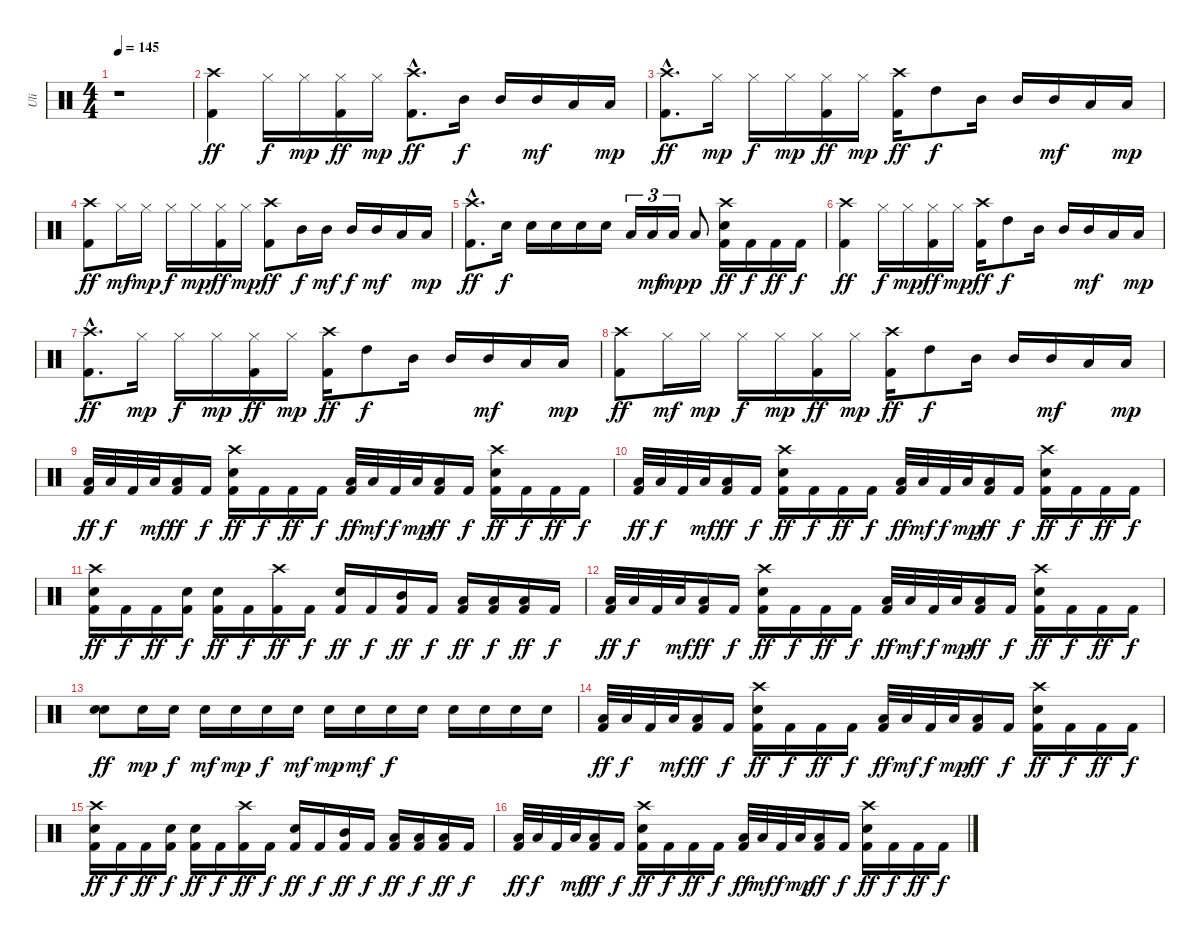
\track ("Uli" "Uli") {instrument percussion}
\staff {score}
\articulation defaults
\ts (4 4)
\tempo 145
\clef neutral
\ks c
r.1{dy ff} |
("Crash high (hit)" "Kick (hit) 2").4 "Hi-Hat (closed)".16{dy f} "Hi-Hat (closed)".16{dy mp} ("Hi-Hat (closed)" "Kick (hit) 2").16{dy ff} "Hi-Hat (closed)".16{dy mp} ("Crash high (hit)"{hac} "Kick (hit) 2"{hac}).8{d dy ff} "Mid Tom (hit)".16{dy f} "Mid Tom (hit)".16 "Mid Tom (hit)".16{dy mf} "Low Tom (hit)".16 "Low Tom (hit)".16{dy mp} |
("Crash high (hit)"{hac} "Kick (hit) 2"{hac}).8{d dy ff} "Hi-Hat (closed)".16{dy mp} "Hi-Hat (closed)".16{dy f} "Hi-Hat (closed)".16{dy mp} ("Hi-Hat (closed)" "Kick (hit) 2").16{dy ff} "Hi-Hat (closed)".16{dy mp} ("Crash high (hit)" "Kick (hit) 2").16{dy ff} "High Tom (hit)".8{dy f} "Mid Tom (hit)".16 "Mid Tom (hit)".16 "Mid Tom (hit)".16{dy mf} "Low Tom (hit)".16 "Low Tom (hit)".16{dy mp} |
("Crash high (hit)" "Kick (hit) 2").8{dy ff} "Hi-Hat (closed)".16{dy mf} "Hi-Hat (closed)".16{dy mp} "Hi-Hat (closed)".16{dy f} "Hi-Hat (closed)".16{dy mp} ("Hi-Hat (closed)" "Kick (hit) 2").16{dy ff} "Hi-Hat (closed)".16{dy mp} ("Crash high (hit)" "Kick (hit) 2").8{dy ff} "Mid Tom (hit)".16{dy f} "Mid Tom (hit)".16{dy mf} "Mid Tom (hit)".16{dy f} "Mid Tom (hit)".16{dy mf} "Low Tom (hit)".16 "Low Tom (hit)".16{dy mp} |
("Crash high (hit)"{hac} "Kick (hit) 2"{hac}).8{d dy ff} "Electric Snare (hit)".16{dy f} "Electric Snare (hit)".16 "Electric Snare (hit)".16 "Electric Snare (hit)".16 "Electric Snare (hit)".16 "Low Tom (hit)".16{tu (3 2)} "Low Tom (hit)".16{tu (3 2) dy mf} "Low Tom (hit)".16{tu (3 2) dy mp} "Low Tom (hit)".8{dy p} ("Crash high (hit)" "Electric Snare (hit)" "Kick (hit) 2").16{dy ff} "Kick (hit) 2".16{dy f} "Kick (hit) 2".16{dy ff} "Kick (hit) 2".16{dy f} |
("Crash high (hit)" "Kick (hit) 2").4{dy ff} "Hi-Hat (closed)".16{dy f} "Hi-Hat (closed)".16{dy mp} ("Hi-Hat (closed)" "Kick (hit) 2").16{dy ff} "Hi-Hat (closed)".16{dy mp} ("Crash high (hit)" "Kick (hit) 2").16{dy ff} "High Tom (hit)".8{dy f} "Mid Tom (hit)".16 "Mid Tom (hit)".16 "Mid Tom (hit)".16{dy mf} "Low Tom (hit)".16 "Low Tom (hit)".16{dy mp} |
("Crash high (hit)"{hac} "Kick (hit) 2"{hac}).8{d dy ff} "Hi-Hat (closed)".16{dy mp} "Hi-Hat (closed)".16{dy f} "Hi-Hat (closed)".16{dy mp} ("Hi-Hat (closed)" "Kick (hit) 2").16{dy ff} "Hi-Hat (closed)".16{dy mp} ("Crash high (hit)" "Kick (hit) 2").16{dy ff} "High Tom (hit)".8{dy f} "Mid Tom (hit)".16 "Mid Tom (hit)".16 "Mid Tom (hit)".16{dy mf} "Low Tom (hit)".16 "Low Tom (hit)".16{dy mp} |
("Crash high (hit)" "Kick (hit) 2").8{dy ff} "Hi-Hat (closed)".16{dy mf} "Hi-Hat (closed)".16{dy mp} "Hi-Hat (closed)".16{dy f} "Hi-Hat (closed)".16{dy mp} ("Hi-Hat (closed)" "Kick (hit) 2").16{dy ff} "Hi-Hat (closed)".16{dy mp} ("Crash high (hit)" "Kick (hit) 2").16{dy ff} "High Tom (hit)".8{dy f} "Mid Tom (hit)".16 "Mid Tom (hit)".16 "Mid Tom (hit)".16{dy mf} "Low Tom (hit)".16 "Low Tom (hit)".16{dy mp} |
("Low Tom (hit)" "Kick (hit) 2").32{dy ff} "Low Tom (hit)".32{dy f} "Kick (hit) 2".32 "Low Tom (hit)".32{dy mf} ("Low Tom (hit)" "Kick (hit) 2").16{dy ff} "Kick (hit) 2".16{dy f} ("Crash high (hit)" "Electric Snare (hit)" "Kick (hit) 2").16{dy ff} "Kick (hit) 2".16{dy f} "Kick (hit) 2".16{dy ff} "Kick (hit) 2".16{dy f} ("Low Tom (hit)" "Kick (hit) 2").32{dy ff} "Low Tom (hit)".32{dy mf} "Kick (hit) 2".32{dy f} "Low Tom (hit)".32{dy mp} ("Low Tom (hit)" "Kick (hit) 2").16{dy ff} "Kick (hit) 2".16{dy f} ("Crash high (hit)" "Electric Snare (hit)" "Kick (hit) 2").16{dy ff} "Kick (hit) 2".16{dy f} "Kick (hit) 2".16{dy ff} "Kick (hit) 2".16{dy f} |
("Low Tom (hit)" "Kick (hit) 2").32{dy ff} "Low Tom (hit)".32{dy f} "Kick (hit) 2".32 "Low Tom (hit)".32{dy mf} ("Low Tom (hit)" "Kick (hit) 2").16{dy ff} "Kick (hit) 2".16{dy f} ("Crash high (hit)" "Electric Snare (hit)" "Kick (hit) 2").16{dy ff} "Kick (hit) 2".16{dy f} "Kick (hit) 2".16{dy ff} "Kick (hit) 2".16{dy f} ("Low Tom (hit)" "Kick (hit) 2").32{dy ff} "Low Tom (hit)".32{dy mf} "Kick (hit) 2".32{dy f} "Low Tom (hit)".32{dy mp} ("Low Tom (hit)" "Kick (hit) 2").16{dy ff} "Kick (hit) 2".16{dy f} ("Crash high (hit)" "Electric Snare (hit)" "Kick (hit) 2").16{dy ff} "Kick (hit) 2".16{dy f} "Kick (hit) 2".16{dy ff} "Kick (hit) 2".16{dy f} |
("Crash high (hit)" "Electric Snare (hit)" "Kick (hit) 2").16{dy ff} "Kick (hit) 2".16{dy f} "Kick (hit) 2".16{dy ff} ("Electric Snare (hit)" "Kick (hit) 2").16{dy f} ("Electric Snare (hit)" "Kick (hit) 2").16{dy ff} "Kick (hit) 2".16{dy f} ("Crash high (hit)" "Kick (hit) 2").16{dy ff} "Kick (hit) 2".16{dy f} ("Electric Snare (hit)" "Kick (hit) 2").16{dy ff} "Kick (hit) 2".16{dy f} ("Mid Tom (hit)" "Kick (hit) 2").16{dy ff} "Kick (hit) 2".16{dy f} ("Low Tom (hit)" "Kick (hit) 2").16{dy ff} ("Low Tom (hit)" "Kick (hit) 2").16{dy f} ("Low Tom (hit)" "Kick (hit) 2").16{dy ff} "Kick (hit) 2".16{dy f} |
("Low Tom (hit)" "Kick (hit) 2").32{dy ff} "Low Tom (hit)".32{dy f} "Kick (hit) 2".32 "Low Tom (hit)".32{dy mf} ("Low Tom (hit)" "Kick (hit) 2").16{dy ff} "Kick (hit) 2".16{dy f} ("Crash high (hit)" "Electric Snare (hit)" "Kick (hit) 2").16{dy ff} "Kick (hit) 2".16{dy f} "Kick (hit) 2".16{dy ff} "Kick (hit) 2".16{dy f} ("Low Tom (hit)" "Kick (hit) 2").32{dy ff} "Low Tom (hit)".32{dy mf} "Kick (hit) 2".32{dy f} "Low Tom (hit)".32{dy mp} ("Low Tom (hit)" "Kick (hit) 2").16{dy ff} "Kick (hit) 2".16{dy f} ("Crash high (hit)" "Electric Snare (hit)" "Kick (hit) 2").16{dy ff} "Kick (hit) 2".16{dy f} "Kick (hit) 2".16{dy ff} "Kick (hit) 2".16{dy f} |
("Electric Snare (hit)" "Electric Snare (hit)").8{dy ff} "Electric Snare (hit)".16{dy mp} "Electric Snare (hit)".16{dy f} "Electric Snare (hit)".16{dy mf} "Electric Snare (hit)".16{dy mp} "Electric Snare (hit)".16{dy f} "Electric Snare (hit)".16{dy mf} "Electric Snare (hit)".16{dy mp} "Electric Snare (hit)".16{dy mf} "Electric Snare (hit)".16{dy f} "Electric Snare (hit)".16 "Electric Snare (hit)".16 "Electric Snare (hit)".16 "Electric Snare (hit)".16 "Electric Snare (hit)".16 |
("Low Tom (hit)" "Kick (hit) 2").32{dy ff} "Low Tom (hit)".32{dy f} "Kick (hit) 2".32 "Low Tom (hit)".32{dy mf} ("Low Tom (hit)" "Kick (hit) 2").16{dy ff} "Kick (hit) 2".16{dy f} ("Crash high (hit)" "Electric Snare (hit)" "Kick (hit) 2").16{dy ff} "Kick (hit) 2".16{dy f} "Kick (hit) 2".16{dy ff} "Kick (hit) 2".16{dy f} ("Low Tom (hit)" "Kick (hit) 2").32{dy ff} "Low Tom (hit)".32{dy mf} "Kick (hit) 2".32{dy f} "Low Tom (hit)".32{dy mp} ("Low Tom (hit)" "Kick (hit) 2").16{dy ff} "Kick (hit) 2".16{dy f} ("Crash high (hit)" "Electric Snare (hit)" "Kick (hit) 2").16{dy ff} "Kick (hit) 2".16{dy f} "Kick (hit) 2".16{dy ff} "Kick (hit) 2".16{dy f} |
("Crash high (hit)" "Electric Snare (hit)" "Kick (hit) 2").16{dy ff} "Kick (hit) 2".16{dy f} "Kick (hit) 2".16{dy ff} ("Electric Snare (hit)" "Kick (hit) 2").16{dy f} ("Electric Snare (hit)" "Kick (hit) 2").16{dy ff} "Kick (hit) 2".16{dy f} ("Crash high (hit)" "Kick (hit) 2").16{dy ff} "Kick (hit) 2".16{dy f} ("Electric Snare (hit)" "Kick (hit) 2").16{dy ff} "Kick (hit) 2".16{dy f} ("Mid Tom (hit)" "Kick (hit) 2").16{dy ff} "Kick (hit) 2".16{dy f} ("Low Tom (hit)" "Kick (hit) 2").16{dy ff} ("Low Tom (hit)" "Kick (hit) 2").16{dy f} ("Low Tom (hit)" "Kick (hit) 2").16{dy ff} "Kick (hit) 2".16{dy f} |
("Low Tom (hit)" "Kick (hit) 2").32{dy ff} "Low Tom (hit)".32{dy f} "Kick (hit) 2".32 "Low Tom (hit)".32{dy mf} ("Low Tom (hit)" "Kick (hit) 2").16{dy ff} "Kick (hit) 2".16{dy f} ("Crash high (hit)" "Electric Snare (hit)" "Kick (hit) 2").16{dy ff} "Kick (hit) 2".16{dy f} "Kick (hit) 2".16{dy ff} "Kick (hit) 2".16{dy f} ("Low Tom (hit)" "Kick (hit) 2").32{dy ff} "Low Tom (hit)".32{dy mf} "Kick (hit) 2".32{dy f} "Low Tom (hit)".32{dy mp} ("Low Tom (hit)" "Kick (hit) 2").16{dy ff} "Kick (hit) 2".16{dy f} ("Crash high (hit)" "Electric Snare (hit)" "Kick (hit) 2").16{dy ff} "Kick (hit) 2".16{dy f} "Kick (hit) 2".16{dy ff} "Kick (hit) 2".16{dy f}
